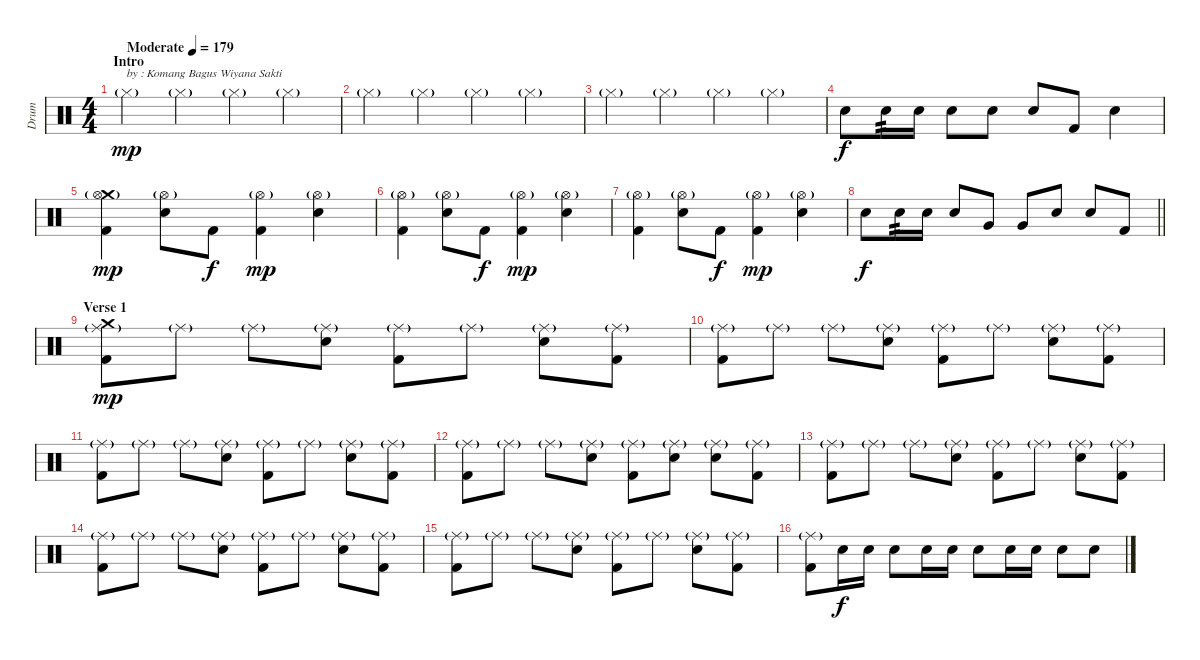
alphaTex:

\track ("Drum" "Drum") {instrument percussion}
\staff {score}
\articulation defaults
\ts (4 4)
\section ("" "Intro")
\tempo (179 "Moderate")
\clef neutral
\ks c "Hi-Hat (closed)"{g}.4{txt "by : Komang Bagus Wiyana Sakti" dy mp} "Hi-Hat (closed)"{g}.4 "Hi-Hat (closed)"{g}.4 "Hi-Hat (closed)"{g}.4
|
"Hi-Hat (closed)"{g}.4 "Hi-Hat (closed)"{g}.4 "Hi-Hat (closed)"{g}.4 "Hi-Hat (closed)"{g}.4 |
"Hi-Hat (closed)"{g}.4 "Hi-Hat (closed)"{g}.4 "Hi-Hat (closed)"{g}.4 "Hi-Hat (closed)"{g}.4 |
"Electric Snare (hit)".8{dy f} "Electric Snare (hit)".16{tp 2} "Electric Snare (hit)".16 "Electric Snare (hit)".8 "Electric Snare (hit)".8 "Electric Snare (hit)".8 "Kick (hit) 2".8 "Electric Snare (hit)".4 |
("Crash medium (hit)" "Hi-Hat (open)"{g} "Kick (hit) 2").4{dy mp} ("Hi-Hat (open)"{g} "Electric Snare (hit)").8 "Kick (hit) 2".8{dy f} ("Hi-Hat (open)"{g} "Kick (hit) 2").4{dy mp} ("Hi-Hat (open)"{g} "Electric Snare (hit)").4 |
("Hi-Hat (open)"{g} "Kick (hit) 2").4 ("Hi-Hat (open)"{g} "Electric Snare (hit)").8 "Kick (hit) 2".8{dy f} ("Hi-Hat (open)"{g} "Kick (hit) 2").4{dy mp} ("Hi-Hat (open)"{g} "Electric Snare (hit)").4 |
("Hi-Hat (open)"{g} "Kick (hit) 2").4 ("Hi-Hat (open)"{g} "Electric Snare (hit)").8 "Kick (hit) 2".8{dy f} ("Hi-Hat (open)"{g} "Kick (hit) 2").4{dy mp} ("Hi-Hat (open)"{g} "Electric Snare (hit)").4 |
\barLineRight lightlight "Electric Snare (hit)".8{dy f} "Electric Snare (hit)".16{tp 2} "Electric Snare (hit)".16 "Electric Snare (hit)".8 "Very Low Tom (hit)".8 "Very Low Tom (hit)".8 "Electric Snare (hit)".8 "Electric Snare (hit)".8 "Kick (hit) 2".8
|
\section ("" "Verse 1")
("Crash medium (hit)" "Ride (middle)"{g} "Kick (hit) 2").8{dy mp} "Ride (middle)"{g}.8 "Ride (middle)"{g}.8 ("Ride (middle)"{g} "Electric Snare (hit)").8 ("Ride (middle)"{g} "Kick (hit) 2").8 "Ride (middle)"{g}.8 ("Ride (middle)"{g} "Electric Snare (hit)").8 ("Ride (middle)"{g} "Kick (hit) 2").8 |
("Ride (middle)"{g} "Kick (hit) 2").8 "Ride (middle)"{g}.8 "Ride (middle)"{g}.8 ("Ride (middle)"{g} "Electric Snare (hit)").8 ("Ride (middle)"{g} "Kick (hit) 2").8 "Ride (middle)"{g}.8 ("Ride (middle)"{g} "Electric Snare (hit)").8 ("Ride (middle)"{g} "Kick (hit) 2").8 |
("Ride (middle)"{g} "Kick (hit) 2").8 "Ride (middle)"{g}.8 "Ride (middle)"{g}.8 ("Ride (middle)"{g} "Electric Snare (hit)").8 ("Ride (middle)"{g} "Kick (hit) 2").8 "Ride (middle)"{g}.8 ("Ride (middle)"{g} "Electric Snare (hit)").8 ("Ride (middle)"{g} "Kick (hit) 2").8 |
("Ride (middle)"{g} "Kick (hit) 2").8 "Ride (middle)"{g}.8 "Ride (middle)"{g}.8 ("Ride (middle)"{g} "Electric Snare (hit)").8 ("Ride (middle)"{g} "Kick (hit) 2").8 ("Ride (middle)"{g} "Electric Snare (hit)").8 ("Ride (middle)"{g} "Electric Snare (hit)").8 ("Ride (middle)"{g} "Kick (hit) 2").8 |
("Ride (middle)"{g} "Kick (hit) 2").8 "Ride (middle)"{g}.8 "Ride (middle)"{g}.8 ("Ride (middle)"{g} "Electric Snare (hit)").8 ("Ride (middle)"{g} "Kick (hit) 2").8 "Ride (middle)"{g}.8 ("Ride (middle)"{g} "Electric Snare (hit)").8 ("Ride (middle)"{g} "Kick (hit) 2").8 |
("Ride (middle)"{g} "Kick (hit) 2").8 "Ride (middle)"{g}.8 "Ride (middle)"{g}.8 ("Ride (middle)"{g} "Electric Snare (hit)").8 ("Ride (middle)"{g} "Kick (hit) 2").8 "Ride (middle)"{g}.8 ("Ride (middle)"{g} "Electric Snare (hit)").8 ("Ride (middle)"{g} "Kick (hit) 2").8 |
("Ride (middle)"{g} "Kick (hit) 2").8 "Ride (middle)"{g}.8 "Ride (middle)"{g}.8 ("Ride (middle)"{g} "Electric Snare (hit)").8 ("Ride (middle)"{g} "Kick (hit) 2").8 "Ride (middle)"{g}.8 ("Ride (middle)"{g} "Electric Snare (hit)").8 ("Ride (middle)"{g} "Kick (hit) 2").8 |
("Ride (middle)"{g} "Kick (hit) 2").8 "Electric Snare (hit)".16{dy f} "Electric Snare (hit)".16 "Electric Snare (hit)".8 "Electric Snare (hit)".16 "Electric Snare (hit)".16 "Electric Snare (hit)".8 "Electric Snare (hit)".16 "Electric Snare (hit)".16 "Electric Snare (hit)".8 "Electric Snare (hit)".8
